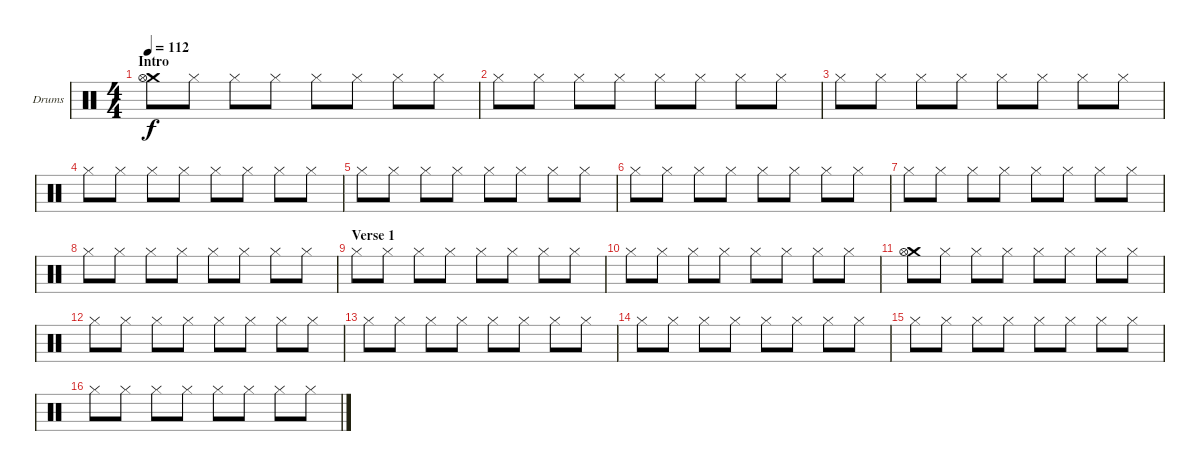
\bracketExtendMode groupsimilarinstruments
\firstSystemTrackNameOrientation horizontal
\otherSystemsTrackNameOrientation horizontal
\track ("Drumkit" "Drums") {instrument percussion}
\staff {score}
\articulation defaults
\ts (4 4)
\section ("" "Intro")
\tempo 112
\clef neutral
\ks c
("Crash medium (hit)" "Hi-Hat (open)").8{dy f} "Hi-Hat (closed)".8 "Hi-Hat (closed)".8 "Hi-Hat (closed)".8 "Hi-Hat (closed)".8 "Hi-Hat (closed)".8 "Hi-Hat (closed)".8 "Hi-Hat (closed)".8 |
"Hi-Hat (closed)".8 "Hi-Hat (closed)".8 "Hi-Hat (closed)".8 "Hi-Hat (closed)".8 "Hi-Hat (closed)".8 "Hi-Hat (closed)".8 "Hi-Hat (closed)".8 "Hi-Hat (closed)".8 |
"Hi-Hat (closed)".8 "Hi-Hat (closed)".8 "Hi-Hat (closed)".8 "Hi-Hat (closed)".8 "Hi-Hat (closed)".8 "Hi-Hat (closed)".8 "Hi-Hat (closed)".8 "Hi-Hat (closed)".8 |
"Hi-Hat (closed)".8 "Hi-Hat (closed)".8 "Hi-Hat (closed)".8 "Hi-Hat (closed)".8 "Hi-Hat (closed)".8 "Hi-Hat (closed)".8 "Hi-Hat (closed)".8 "Hi-Hat (closed)".8 |
"Hi-Hat (closed)".8 "Hi-Hat (closed)".8 "Hi-Hat (closed)".8 "Hi-Hat (closed)".8 "Hi-Hat (closed)".8 "Hi-Hat (closed)".8 "Hi-Hat (closed)".8 "Hi-Hat (closed)".8 |
"Hi-Hat (closed)".8 "Hi-Hat (closed)".8 "Hi-Hat (closed)".8 "Hi-Hat (closed)".8 "Hi-Hat (closed)".8 "Hi-Hat (closed)".8 "Hi-Hat (closed)".8 "Hi-Hat (closed)".8 |
"Hi-Hat (closed)".8 "Hi-Hat (closed)".8 "Hi-Hat (closed)".8 "Hi-Hat (closed)".8 "Hi-Hat (closed)".8 "Hi-Hat (closed)".8 "Hi-Hat (closed)".8 "Hi-Hat (closed)".8 |
"Hi-Hat (closed)".8 "Hi-Hat (closed)".8 "Hi-Hat (closed)".8 "Hi-Hat (closed)".8 "Hi-Hat (closed)".8 "Hi-Hat (closed)".8 "Hi-Hat (closed)".8 "Hi-Hat (closed)".8 |
\section ("" "Verse 1")
"Hi-Hat (closed)".8 "Hi-Hat (closed)".8 "Hi-Hat (closed)".8 "Hi-Hat (closed)".8 "Hi-Hat (closed)".8 "Hi-Hat (closed)".8 "Hi-Hat (closed)".8 "Hi-Hat (closed)".8 |
"Hi-Hat (closed)".8 "Hi-Hat (closed)".8 "Hi-Hat (closed)".8 "Hi-Hat (closed)".8 "Hi-Hat (closed)".8 "Hi-Hat (closed)".8 "Hi-Hat (closed)".8 "Hi-Hat (closed)".8 |
("Crash medium (hit)" "Hi-Hat (open)").8 "Hi-Hat (closed)".8 "Hi-Hat (closed)".8 "Hi-Hat (closed)".8 "Hi-Hat (closed)".8 "Hi-Hat (closed)".8 "Hi-Hat (closed)".8 "Hi-Hat (closed)".8 |
"Hi-Hat (closed)".8 "Hi-Hat (closed)".8 "Hi-Hat (closed)".8 "Hi-Hat (closed)".8 "Hi-Hat (closed)".8 "Hi-Hat (closed)".8 "Hi-Hat (closed)".8 "Hi-Hat (closed)".8 |
"Hi-Hat (closed)".8 "Hi-Hat (closed)".8 "Hi-Hat (closed)".8 "Hi-Hat (closed)".8 "Hi-Hat (closed)".8 "Hi-Hat (closed)".8 "Hi-Hat (closed)".8 "Hi-Hat (closed)".8 |
"Hi-Hat (closed)".8 "Hi-Hat (closed)".8 "Hi-Hat (closed)".8 "Hi-Hat (closed)".8 "Hi-Hat (closed)".8 "Hi-Hat (closed)".8 "Hi-Hat (closed)".8 "Hi-Hat (closed)".8 |
"Hi-Hat (closed)".8 "Hi-Hat (closed)".8 "Hi-Hat (closed)".8 "Hi-Hat (closed)".8 "Hi-Hat (closed)".8 "Hi-Hat (closed)".8 "Hi-Hat (closed)".8 "Hi-Hat (closed)".8 |
"Hi-Hat (closed)".8 "Hi-Hat (closed)".8 "Hi-Hat (closed)".8 "Hi-Hat (closed)".8 "Hi-Hat (closed)".8 "Hi-Hat (closed)".8 "Hi-Hat (closed)".8 "Hi-Hat (closed)".8
